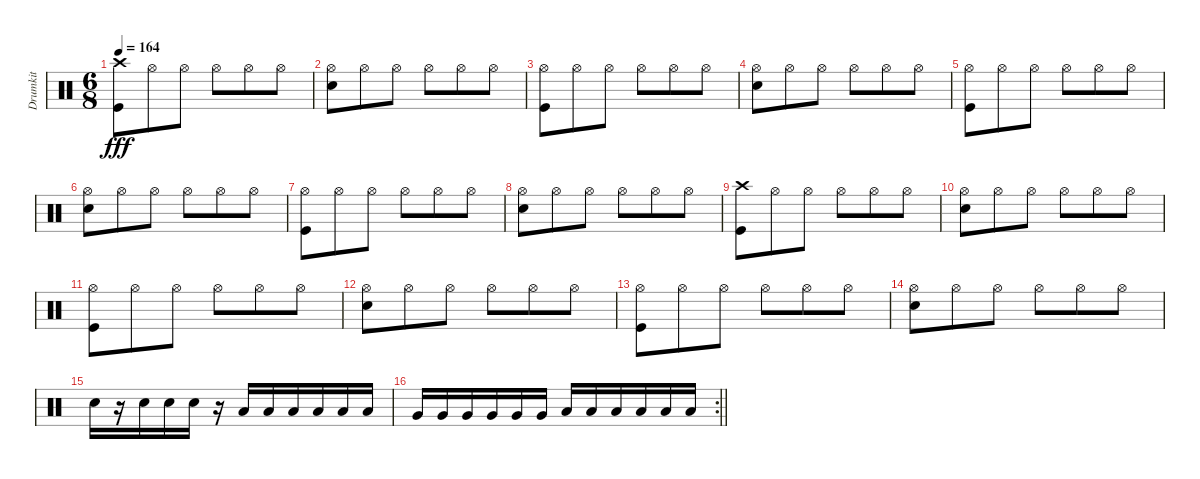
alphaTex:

\track ("Drumkit" "Drumkit") {instrument percussion}
\staff {score}
\articulation defaults
\ts (6 8)
\tempo 164
\clef neutral
\ks c
("Kick (hit)" "Crash high (hit)").8{dy fff} "Hi-Hat (open)".8 "Hi-Hat (open)".8 "Hi-Hat (open)".8 "Hi-Hat (open)".8 "Hi-Hat (open)".8 |
("Hi-Hat (open)" "Snare (hit) 2").8 "Hi-Hat (open)".8 "Hi-Hat (open)".8 "Hi-Hat (open)".8 "Hi-Hat (open)".8 "Hi-Hat (open)".8 |
("Hi-Hat (open)" "Kick (hit)").8 "Hi-Hat (open)".8 "Hi-Hat (open)".8 "Hi-Hat (open)".8 "Hi-Hat (open)".8 "Hi-Hat (open)".8 |
("Hi-Hat (open)" "Snare (hit) 2").8 "Hi-Hat (open)".8 "Hi-Hat (open)".8 "Hi-Hat (open)".8 "Hi-Hat (open)".8 "Hi-Hat (open)".8 |
("Hi-Hat (open)" "Kick (hit)").8 "Hi-Hat (open)".8 "Hi-Hat (open)".8 "Hi-Hat (open)".8 "Hi-Hat (open)".8 "Hi-Hat (open)".8 |
("Hi-Hat (open)" "Snare (hit) 2").8 "Hi-Hat (open)".8 "Hi-Hat (open)".8 "Hi-Hat (open)".8 "Hi-Hat (open)".8 "Hi-Hat (open)".8 |
("Hi-Hat (open)" "Kick (hit)").8 "Hi-Hat (open)".8 "Hi-Hat (open)".8 "Hi-Hat (open)".8 "Hi-Hat (open)".8 "Hi-Hat (open)".8 |
("Hi-Hat (open)" "Snare (hit) 2").8 "Hi-Hat (open)".8 "Hi-Hat (open)".8 "Hi-Hat (open)".8 "Hi-Hat (open)".8 "Hi-Hat (open)".8 |
("Kick (hit)" "Crash high (hit)").8 "Hi-Hat (open)".8 "Hi-Hat (open)".8 "Hi-Hat (open)".8 "Hi-Hat (open)".8 "Hi-Hat (open)".8 |
("Hi-Hat (open)" "Snare (hit) 2").8 "Hi-Hat (open)".8 "Hi-Hat (open)".8 "Hi-Hat (open)".8 "Hi-Hat (open)".8 "Hi-Hat (open)".8 |
("Hi-Hat (open)" "Kick (hit)").8 "Hi-Hat (open)".8 "Hi-Hat (open)".8 "Hi-Hat (open)".8 "Hi-Hat (open)".8 "Hi-Hat (open)".8 |
("Hi-Hat (open)" "Snare (hit) 2").8 "Hi-Hat (open)".8 "Hi-Hat (open)".8 "Hi-Hat (open)".8 "Hi-Hat (open)".8 "Hi-Hat (open)".8 |
("Hi-Hat (open)" "Kick (hit)").8 "Hi-Hat (open)".8 "Hi-Hat (open)".8 "Hi-Hat (open)".8 "Hi-Hat (open)".8 "Hi-Hat (open)".8 |
("Hi-Hat (open)" "Snare (hit) 2").8 "Hi-Hat (open)".8 "Hi-Hat (open)".8 "Hi-Hat (open)".8 "Hi-Hat (open)".8 "Hi-Hat (open)".8 |
"Snare (hit) 2".16 r.16 "Snare (hit) 2".16 "Snare (hit) 2".16 "Snare (hit) 2".16 r.16 "Low Tom (hit)".16 "Low Tom (hit)".16 "Low Tom (hit)".16 "Low Tom (hit)".16 "Low Tom (hit)".16 "Low Tom (hit)".16 |
\rc 2
\barLineRight lightlight "Very Low Tom (hit)".16 "Very Low Tom (hit)".16 "Very Low Tom (hit)".16 "Very Low Tom (hit)".16 "Very Low Tom (hit)".16 "Very Low Tom (hit)".16 "Low Floor Tom (hit)".16 "Low Floor Tom (hit)".16 "Low Floor Tom (hit)".16 "Low Floor Tom (hit)".16 "Low Floor Tom (hit)".16 "Low Floor Tom (hit)".16
